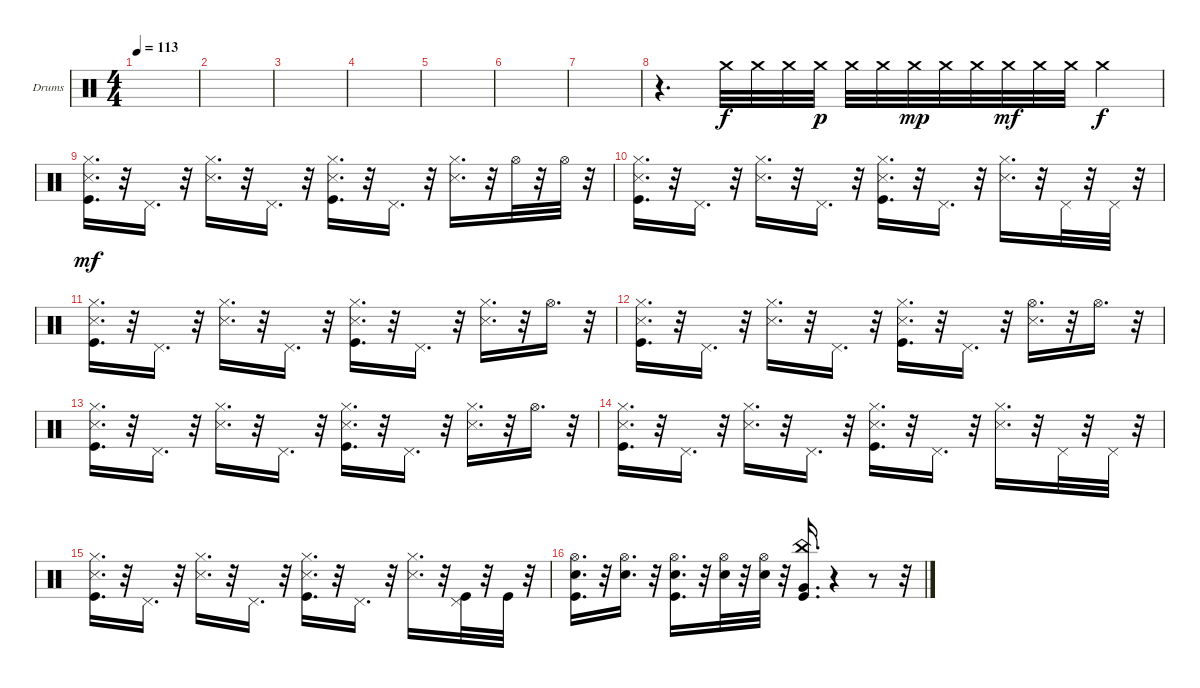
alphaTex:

\bracketExtendMode groupsimilarinstruments
\firstSystemTrackNameOrientation horizontal
\otherSystemsTrackNameOrientation horizontal
\track ("Drumkit" "Drums") {instrument percussion}
\staff {score}
\articulation defaults
\ts (4 4)
\tempo 113
\clef neutral
\ks c
|
|
|
|
|
|
|
r.4{d} "Crash medium (hit)".32 "Crash medium (hit)".32 "Crash medium (hit)".32 "Crash medium (hit)".32{dy p} "Crash medium (hit)".32 "Crash medium (hit)".32 "Crash medium (hit)".32{dy mp} "Crash medium (hit)".32 "Crash medium (hit)".32 "Crash medium (hit)".32{dy mf} "Crash medium (hit)".32 "Crash medium (hit)".32 "Crash medium (hit)".4{dy f} |
("Hi-Hat (closed)" "Snare (side stick) 3" "Kick (hit)").16{d dy mf} r.32 "Pedal Hi-Hat (hit)".16{d} r.32 ("Hi-Hat (closed)" "Snare (side stick) 3").16{d} r.32 "Pedal Hi-Hat (hit)".16{d} r.32 ("Hi-Hat (closed)" "Snare (side stick) 3" "Kick (hit)").16{d} r.32 "Pedal Hi-Hat (hit)".16{d} r.32 ("Hi-Hat (closed)" "Snare (side stick) 3").16{d} r.32 "Hi-Hat (open)".32 r.32 "Hi-Hat (open)".32 r.32 |
("Hi-Hat (closed)" "Snare (side stick) 3" "Kick (hit)").16{d} r.32 "Pedal Hi-Hat (hit)".16{d} r.32 ("Hi-Hat (closed)" "Snare (side stick) 3").16{d} r.32 "Pedal Hi-Hat (hit)".16{d} r.32 ("Hi-Hat (closed)" "Snare (side stick) 3" "Kick (hit)").16{d} r.32 "Pedal Hi-Hat (hit)".16{d} r.32 ("Hi-Hat (closed)" "Snare (side stick) 3").16{d} r.32 "Pedal Hi-Hat (hit)".32 r.32 "Pedal Hi-Hat (hit)".32 r.32 |
("Hi-Hat (closed)" "Snare (side stick) 3" "Kick (hit)").16{d} r.32 "Pedal Hi-Hat (hit)".16{d} r.32 ("Hi-Hat (closed)" "Snare (side stick) 3").16{d} r.32 "Pedal Hi-Hat (hit)".16{d} r.32 ("Hi-Hat (closed)" "Snare (side stick) 3" "Kick (hit)").16{d} r.32 "Pedal Hi-Hat (hit)".16{d} r.32 ("Hi-Hat (closed)" "Snare (side stick) 3").16{d} r.32 "Hi-Hat (open)".16{d} r.32 |
("Hi-Hat (closed)" "Snare (side stick) 3" "Kick (hit)").16{d} r.32 "Pedal Hi-Hat (hit)".16{d} r.32 ("Hi-Hat (closed)" "Snare (side stick) 3").16{d} r.32 "Pedal Hi-Hat (hit)".16{d} r.32 ("Hi-Hat (closed)" "Snare (side stick) 3" "Kick (hit)").16{d} r.32 "Pedal Hi-Hat (hit)".16{d} r.32 ("Hi-Hat (open)" "Snare (side stick) 3").16{d} r.32 "Hi-Hat (open)".16{d} r.32 |
("Hi-Hat (closed)" "Snare (side stick) 3" "Kick (hit)").16{d} r.32 "Pedal Hi-Hat (hit)".16{d} r.32 ("Hi-Hat (closed)" "Snare (side stick) 3").16{d} r.32 "Pedal Hi-Hat (hit)".16{d} r.32 ("Hi-Hat (closed)" "Snare (side stick) 3" "Kick (hit)").16{d} r.32 "Pedal Hi-Hat (hit)".16{d} r.32 ("Hi-Hat (closed)" "Snare (side stick) 3").16{d} r.32 "Hi-Hat (open)".16{d} r.32 |
("Hi-Hat (closed)" "Snare (side stick) 3" "Kick (hit)").16{d} r.32 "Pedal Hi-Hat (hit)".16{d} r.32 ("Hi-Hat (closed)" "Snare (side stick) 3").16{d} r.32 "Pedal Hi-Hat (hit)".16{d} r.32 ("Hi-Hat (closed)" "Snare (side stick) 3" "Kick (hit)").16{d} r.32 "Pedal Hi-Hat (hit)".16{d} r.32 ("Hi-Hat (closed)" "Snare (side stick) 3").16{d} r.32 "Pedal Hi-Hat (hit)".32 r.32 "Pedal Hi-Hat (hit)".32 r.32 |
("Hi-Hat (closed)" "Snare (side stick) 3" "Kick (hit)").16{d} r.32 "Pedal Hi-Hat (hit)".16{d} r.32 ("Hi-Hat (closed)" "Snare (side stick) 3").16{d} r.32 "Pedal Hi-Hat (hit)".16{d} r.32 ("Hi-Hat (closed)" "Snare (side stick) 3" "Kick (hit)").16{d} r.32 "Pedal Hi-Hat (hit)".16{d} r.32 ("Hi-Hat (closed)" "Snare (side stick) 3").16{d} r.32 ("Pedal Hi-Hat (hit)" "Kick (hit)").32 r.32 "Kick (hit)".32 r.32 |
("Snare (hit) 2" "Hi-Hat (open)" "Kick (hit)").16{d} r.32 ("Snare (hit) 2" "Hi-Hat (open)").16{d} r.32 ("Snare (hit) 2" "Hi-Hat (open)" "Kick (hit)").16{d} r.32 ("Snare (hit) 2" "Hi-Hat (open)").32 r.32 ("Snare (hit) 2" "Hi-Hat (open)").32 r.32 ("China (hit)" "Very Low Tom (hit)" "Kick (hit)").16{d} r.4 r.8 r.32
